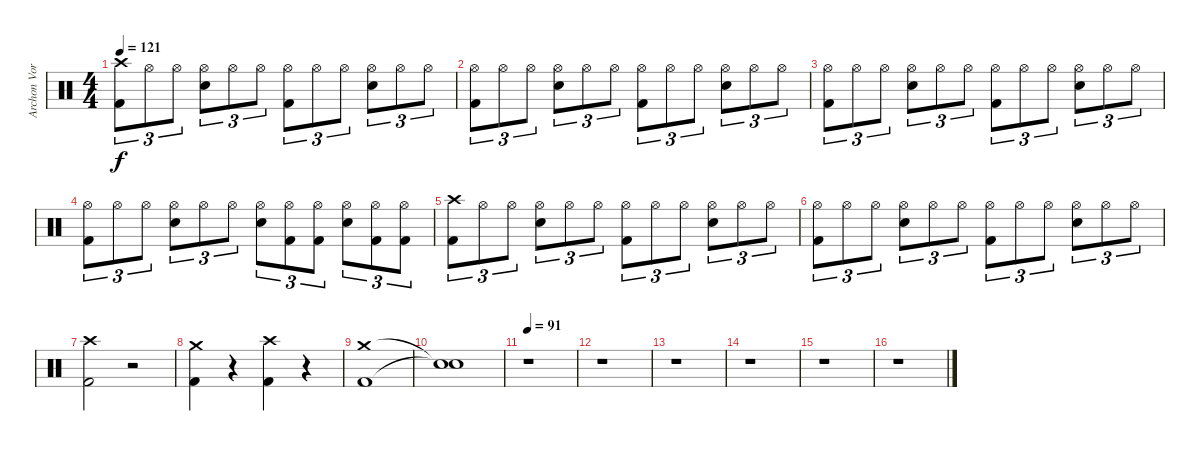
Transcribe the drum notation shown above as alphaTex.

\track ("Archon Vorskaath" "Archon Vor") {instrument percussion}
\staff {score}
\articulation defaults
\ts (4 4)
\tempo 121
\clef neutral
\ks c
("Crash high (hit)" "Kick (hit) 2").8{tu (3 2) dy f} "Hi-Hat (open)".8{tu (3 2)} "Hi-Hat (open)".8{tu (3 2)} ("Hi-Hat (open)" "Electric Snare (hit)").8{tu (3 2)} "Hi-Hat (open)".8{tu (3 2)} "Hi-Hat (open)".8{tu (3 2)} ("Hi-Hat (open)" "Kick (hit) 2").8{tu (3 2)} "Hi-Hat (open)".8{tu (3 2)} "Hi-Hat (open)".8{tu (3 2)} ("Hi-Hat (open)" "Electric Snare (hit)").8{tu (3 2)} "Hi-Hat (open)".8{tu (3 2)} "Hi-Hat (open)".8{tu (3 2)} |
("Hi-Hat (open)" "Kick (hit) 2").8{tu (3 2)} "Hi-Hat (open)".8{tu (3 2)} "Hi-Hat (open)".8{tu (3 2)} ("Hi-Hat (open)" "Electric Snare (hit)").8{tu (3 2)} "Hi-Hat (open)".8{tu (3 2)} "Hi-Hat (open)".8{tu (3 2)} ("Hi-Hat (open)" "Kick (hit) 2").8{tu (3 2)} "Hi-Hat (open)".8{tu (3 2)} "Hi-Hat (open)".8{tu (3 2)} ("Hi-Hat (open)" "Electric Snare (hit)").8{tu (3 2)} "Hi-Hat (open)".8{tu (3 2)} "Hi-Hat (open)".8{tu (3 2)} |
("Hi-Hat (open)" "Kick (hit) 2").8{tu (3 2)} "Hi-Hat (open)".8{tu (3 2)} "Hi-Hat (open)".8{tu (3 2)} ("Hi-Hat (open)" "Electric Snare (hit)").8{tu (3 2)} "Hi-Hat (open)".8{tu (3 2)} "Hi-Hat (open)".8{tu (3 2)} ("Hi-Hat (open)" "Kick (hit) 2").8{tu (3 2)} "Hi-Hat (open)".8{tu (3 2)} "Hi-Hat (open)".8{tu (3 2)} ("Hi-Hat (open)" "Electric Snare (hit)").8{tu (3 2)} "Hi-Hat (open)".8{tu (3 2)} "Hi-Hat (open)".8{tu (3 2)} |
("Hi-Hat (open)" "Kick (hit) 2").8{tu (3 2)} "Hi-Hat (open)".8{tu (3 2)} "Hi-Hat (open)".8{tu (3 2)} ("Hi-Hat (open)" "Electric Snare (hit)").8{tu (3 2)} "Hi-Hat (open)".8{tu (3 2)} "Hi-Hat (open)".8{tu (3 2)} ("Hi-Hat (open)" "Electric Snare (hit)").8{tu (3 2)} ("Hi-Hat (open)" "Kick (hit) 2").8{tu (3 2)} ("Hi-Hat (open)" "Kick (hit) 2").8{tu (3 2)} ("Hi-Hat (open)" "Electric Snare (hit)").8{tu (3 2)} ("Hi-Hat (open)" "Kick (hit) 2").8{tu (3 2)} ("Hi-Hat (open)" "Kick (hit) 2").8{tu (3 2)} |
("Crash high (hit)" "Kick (hit) 2").8{tu (3 2)} "Hi-Hat (open)".8{tu (3 2)} "Hi-Hat (open)".8{tu (3 2)} ("Hi-Hat (open)" "Electric Snare (hit)").8{tu (3 2)} "Hi-Hat (open)".8{tu (3 2)} "Hi-Hat (open)".8{tu (3 2)} ("Hi-Hat (open)" "Kick (hit) 2").8{tu (3 2)} "Hi-Hat (open)".8{tu (3 2)} "Hi-Hat (open)".8{tu (3 2)} ("Hi-Hat (open)" "Electric Snare (hit)").8{tu (3 2)} "Hi-Hat (open)".8{tu (3 2)} "Hi-Hat (open)".8{tu (3 2)} |
("Hi-Hat (open)" "Kick (hit) 2").8{tu (3 2)} "Hi-Hat (open)".8{tu (3 2)} "Hi-Hat (open)".8{tu (3 2)} ("Hi-Hat (open)" "Electric Snare (hit)").8{tu (3 2)} "Hi-Hat (open)".8{tu (3 2)} "Hi-Hat (open)".8{tu (3 2)} ("Hi-Hat (open)" "Kick (hit) 2").8{tu (3 2)} "Hi-Hat (open)".8{tu (3 2)} "Hi-Hat (open)".8{tu (3 2)} ("Hi-Hat (open)" "Electric Snare (hit)").8{tu (3 2)} "Hi-Hat (open)".8{tu (3 2)} "Hi-Hat (open)".8{tu (3 2)} |
("Crash high (hit)" "Kick (hit) 2").2 r.2 |
("Crash medium (hit)" "Kick (hit) 2").4 r.4 ("Crash high (hit)" "Kick (hit) 2").4 r.4 |
("Crash medium (hit)" "Kick (hit) 2").1 |
("Snare (hit)"{t} "Snare (hit)"{t}).1 |
\tempo 91
r.1 |
r.1 |
r.1 |
r.1 |
r.1 |
r.1
